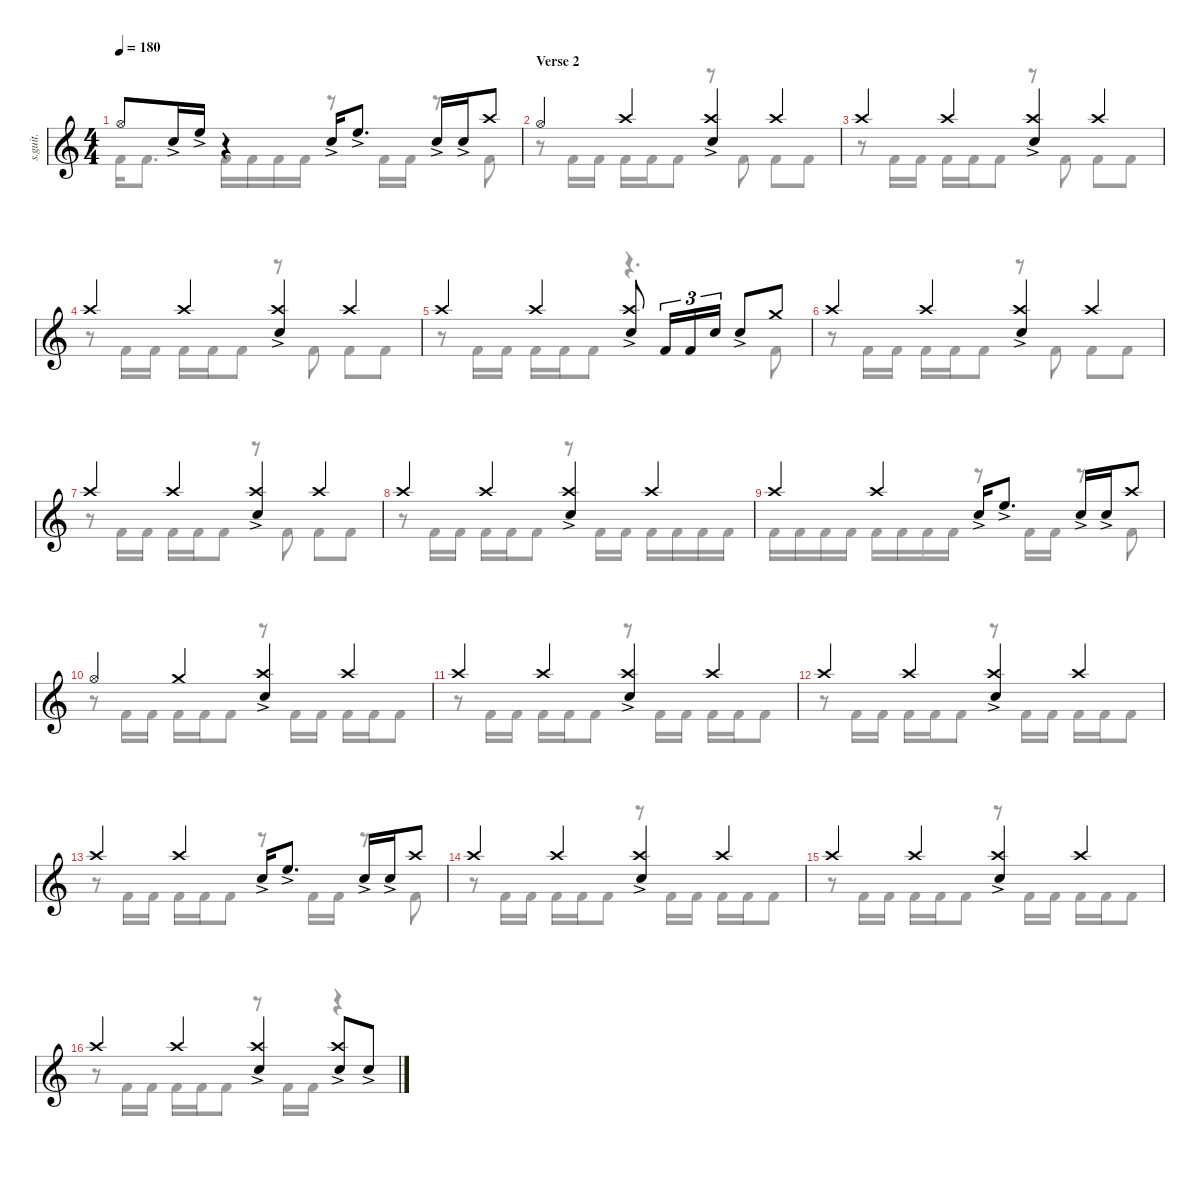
\defaultSystemsLayout 4
\hideDynamics
\bracketExtendMode nobrackets
\track ("Percussion" "s.guit.") {instrument percussion}
\staff {score}
\articulation defaults
\voice
\ts (4 4)
\tempo 180
\clef g2
\ks c "Hi-Hat (open)".8{lyrics (0 "") lyrics (1 "") lyrics (2 "") lyrics (3 "") lyrics (4 "") dy f} "Snare (hit) 2"{ac}.16{lyrics (0 "") lyrics (1 "") lyrics (2 "") lyrics (3 "") lyrics (4 "")} "High Floor Tom (hit)"{ac}.16{lyrics (0 "") lyrics (1 "") lyrics (2 "") lyrics (3 "") lyrics (4 "")}
r.4 "Snare (hit) 2"{ac}.16{lyrics (0 "") lyrics (1 "") lyrics (2 "") lyrics (3 "") lyrics (4 "")} "High Floor Tom (hit)"{ac}.8{d lyrics (0 "") lyrics (1 "") lyrics (2 "") lyrics (3 "") lyrics (4 "")} "Snare (hit) 2"{ac}.16{lyrics (0 "") lyrics (1 "") lyrics (2 "") lyrics (3 "") lyrics (4 "")} "Snare (hit) 2"{ac}.16{lyrics (0 "") lyrics (1 "") lyrics (2 "") lyrics (3 "") lyrics (4 "")} "Crash high (hit)".8{lyrics (0 "") lyrics (1 "") lyrics (2 "") lyrics (3 "") lyrics (4 "")} |
\section ("" "Verse 2")
"Hi-Hat (open)".4{lyrics (0 "") lyrics (1 "") lyrics (2 "") lyrics (3 "") lyrics (4 "")} "Crash high (hit)".4{lyrics (0 "") lyrics (1 "") lyrics (2 "") lyrics (3 "") lyrics (4 "")} ("Crash high (hit)" "Snare (hit) 2"{ac}).4{lyrics (0 "") lyrics (1 "") lyrics (2 "") lyrics (3 "") lyrics (4 "")} "Crash high (hit)".4{lyrics (0 "") lyrics (1 "") lyrics (2 "") lyrics (3 "") lyrics (4 "")} |
"Crash high (hit)".4{lyrics (0 "") lyrics (1 "") lyrics (2 "") lyrics (3 "") lyrics (4 "")} "Crash high (hit)".4{lyrics (0 "") lyrics (1 "") lyrics (2 "") lyrics (3 "") lyrics (4 "")} ("Crash high (hit)" "Snare (hit) 2"{ac}).4{lyrics (0 "") lyrics (1 "") lyrics (2 "") lyrics (3 "") lyrics (4 "")} "Crash high (hit)".4{lyrics (0 "") lyrics (1 "") lyrics (2 "") lyrics (3 "") lyrics (4 "")} |
"Crash high (hit)".4{lyrics (0 "") lyrics (1 "") lyrics (2 "") lyrics (3 "") lyrics (4 "")} "Crash high (hit)".4{lyrics (0 "") lyrics (1 "") lyrics (2 "") lyrics (3 "") lyrics (4 "")} ("Crash high (hit)" "Snare (hit) 2"{ac}).4{lyrics (0 "") lyrics (1 "") lyrics (2 "") lyrics (3 "") lyrics (4 "")} "Crash high (hit)".4{lyrics (0 "") lyrics (1 "") lyrics (2 "") lyrics (3 "") lyrics (4 "")} |
"Crash high (hit)".4{lyrics (0 "") lyrics (1 "") lyrics (2 "") lyrics (3 "") lyrics (4 "")} "Crash high (hit)".4{lyrics (0 "") lyrics (1 "") lyrics (2 "") lyrics (3 "") lyrics (4 "")} ("Snare (hit) 2"{ac} "Crash high (hit)").8{lyrics (0 "") lyrics (1 "") lyrics (2 "") lyrics (3 "") lyrics (4 "")} "Kick (hit) 2".16{tu (3 2) lyrics (0 "") lyrics (1 "") lyrics (2 "") lyrics (3 "") lyrics (4 "")} "Kick (hit) 2".16{tu (3 2) lyrics (0 "") lyrics (1 "") lyrics (2 "") lyrics (3 "") lyrics (4 "")} "Snare (hit) 2".16{tu (3 2) lyrics (0 "") lyrics (1 "") lyrics (2 "") lyrics (3 "") lyrics (4 "")} "Snare (hit) 2"{ac}.8{lyrics (0 "") lyrics (1 "") lyrics (2 "") lyrics (3 "") lyrics (4 "")} "Crash medium (hit)".8{lyrics (0 "") lyrics (1 "") lyrics (2 "") lyrics (3 "") lyrics (4 "")} |
"Crash high (hit)".4{lyrics (0 "") lyrics (1 "") lyrics (2 "") lyrics (3 "") lyrics (4 "")} "Crash high (hit)".4{lyrics (0 "") lyrics (1 "") lyrics (2 "") lyrics (3 "") lyrics (4 "")} ("Crash high (hit)" "Snare (hit) 2"{ac}).4{lyrics (0 "") lyrics (1 "") lyrics (2 "") lyrics (3 "") lyrics (4 "")} "Crash high (hit)".4{lyrics (0 "") lyrics (1 "") lyrics (2 "") lyrics (3 "") lyrics (4 "")} |
"Crash high (hit)".4{lyrics (0 "") lyrics (1 "") lyrics (2 "") lyrics (3 "") lyrics (4 "")} "Crash high (hit)".4{lyrics (0 "") lyrics (1 "") lyrics (2 "") lyrics (3 "") lyrics (4 "")} ("Crash high (hit)" "Snare (hit) 2"{ac}).4{lyrics (0 "") lyrics (1 "") lyrics (2 "") lyrics (3 "") lyrics (4 "")} "Crash high (hit)".4{lyrics (0 "") lyrics (1 "") lyrics (2 "") lyrics (3 "") lyrics (4 "")} |
"Crash high (hit)".4{lyrics (0 "") lyrics (1 "") lyrics (2 "") lyrics (3 "") lyrics (4 "")} "Crash high (hit)".4{lyrics (0 "") lyrics (1 "") lyrics (2 "") lyrics (3 "") lyrics (4 "")} ("Crash high (hit)" "Snare (hit) 2"{ac}).4{lyrics (0 "") lyrics (1 "") lyrics (2 "") lyrics (3 "") lyrics (4 "")} "Crash high (hit)".4{lyrics (0 "") lyrics (1 "") lyrics (2 "") lyrics (3 "") lyrics (4 "")} |
"Crash high (hit)".4{lyrics (0 "") lyrics (1 "") lyrics (2 "") lyrics (3 "") lyrics (4 "")} "Crash high (hit)".4{lyrics (0 "") lyrics (1 "") lyrics (2 "") lyrics (3 "") lyrics (4 "")} "Snare (hit) 2"{ac}.16{lyrics (0 "") lyrics (1 "") lyrics (2 "") lyrics (3 "") lyrics (4 "")} "High Floor Tom (hit)"{ac}.8{d lyrics (0 "") lyrics (1 "") lyrics (2 "") lyrics (3 "") lyrics (4 "")} "Snare (hit) 2"{ac}.16{lyrics (0 "") lyrics (1 "") lyrics (2 "") lyrics (3 "") lyrics (4 "")} "Snare (hit) 2"{ac}.16{lyrics (0 "") lyrics (1 "") lyrics (2 "") lyrics (3 "") lyrics (4 "")} "Crash high (hit)".8{lyrics (0 "") lyrics (1 "") lyrics (2 "") lyrics (3 "") lyrics (4 "")} |
"Hi-Hat (open)".4{lyrics (0 "") lyrics (1 "") lyrics (2 "") lyrics (3 "") lyrics (4 "")} "Crash medium (hit)".4{lyrics (0 "") lyrics (1 "") lyrics (2 "") lyrics (3 "") lyrics (4 "")} ("Crash high (hit)" "Snare (hit) 2"{ac}).4{lyrics (0 "") lyrics (1 "") lyrics (2 "") lyrics (3 "") lyrics (4 "")} "Crash high (hit)".4{lyrics (0 "") lyrics (1 "") lyrics (2 "") lyrics (3 "") lyrics (4 "")} |
"Crash high (hit)".4{lyrics (0 "") lyrics (1 "") lyrics (2 "") lyrics (3 "") lyrics (4 "")} "Crash high (hit)".4{lyrics (0 "") lyrics (1 "") lyrics (2 "") lyrics (3 "") lyrics (4 "")} ("Crash high (hit)" "Snare (hit) 2"{ac}).4{lyrics (0 "") lyrics (1 "") lyrics (2 "") lyrics (3 "") lyrics (4 "")} "Crash high (hit)".4{lyrics (0 "") lyrics (1 "") lyrics (2 "") lyrics (3 "") lyrics (4 "")} |
"Crash high (hit)".4{lyrics (0 "") lyrics (1 "") lyrics (2 "") lyrics (3 "") lyrics (4 "")} "Crash high (hit)".4{lyrics (0 "") lyrics (1 "") lyrics (2 "") lyrics (3 "") lyrics (4 "")} ("Crash high (hit)" "Snare (hit) 2"{ac}).4{lyrics (0 "") lyrics (1 "") lyrics (2 "") lyrics (3 "") lyrics (4 "")} "Crash high (hit)".4{lyrics (0 "") lyrics (1 "") lyrics (2 "") lyrics (3 "") lyrics (4 "")} |
"Crash high (hit)".4{lyrics (0 "") lyrics (1 "") lyrics (2 "") lyrics (3 "") lyrics (4 "")} "Crash high (hit)".4{lyrics (0 "") lyrics (1 "") lyrics (2 "") lyrics (3 "") lyrics (4 "")} "Snare (hit) 2"{ac}.16{lyrics (0 "") lyrics (1 "") lyrics (2 "") lyrics (3 "") lyrics (4 "")} "High Floor Tom (hit)"{ac}.8{d lyrics (0 "") lyrics (1 "") lyrics (2 "") lyrics (3 "") lyrics (4 "")} "Snare (hit) 2"{ac}.16{lyrics (0 "") lyrics (1 "") lyrics (2 "") lyrics (3 "") lyrics (4 "")} "Snare (hit) 2"{ac}.16{lyrics (0 "") lyrics (1 "") lyrics (2 "") lyrics (3 "") lyrics (4 "")} "Crash high (hit)".8{lyrics (0 "") lyrics (1 "") lyrics (2 "") lyrics (3 "") lyrics (4 "")} |
"Crash high (hit)".4{lyrics (0 "") lyrics (1 "") lyrics (2 "") lyrics (3 "") lyrics (4 "")} "Crash high (hit)".4{lyrics (0 "") lyrics (1 "") lyrics (2 "") lyrics (3 "") lyrics (4 "")} ("Crash high (hit)" "Snare (hit) 2"{ac}).4{lyrics (0 "") lyrics (1 "") lyrics (2 "") lyrics (3 "") lyrics (4 "")} "Crash high (hit)".4{lyrics (0 "") lyrics (1 "") lyrics (2 "") lyrics (3 "") lyrics (4 "")} |
"Crash high (hit)".4{lyrics (0 "") lyrics (1 "") lyrics (2 "") lyrics (3 "") lyrics (4 "")} "Crash high (hit)".4{lyrics (0 "") lyrics (1 "") lyrics (2 "") lyrics (3 "") lyrics (4 "")} ("Crash high (hit)" "Snare (hit) 2"{ac}).4{lyrics (0 "") lyrics (1 "") lyrics (2 "") lyrics (3 "") lyrics (4 "")} "Crash high (hit)".4{lyrics (0 "") lyrics (1 "") lyrics (2 "") lyrics (3 "") lyrics (4 "")} |
"Crash high (hit)".4{lyrics (0 "") lyrics (1 "") lyrics (2 "") lyrics (3 "") lyrics (4 "")} "Crash high (hit)".4{lyrics (0 "") lyrics (1 "") lyrics (2 "") lyrics (3 "") lyrics (4 "")} ("Crash high (hit)" "Snare (hit) 2"{ac}).4{lyrics (0 "") lyrics (1 "") lyrics (2 "") lyrics (3 "") lyrics (4 "")} ("Crash high (hit)" "Snare (hit) 2"{ac}).8{lyrics (0 "") lyrics (1 "") lyrics (2 "") lyrics (3 "") lyrics (4 "")} "Snare (hit) 2"{ac}.8{lyrics (0 "") lyrics (1 "") lyrics (2 "") lyrics (3 "") lyrics (4 "")}
\voice
\clef g2
\ottava regular
\simile none
\ks c "Kick (hit) 2".16{lyrics (0 "") lyrics (1 "") lyrics (2 "") lyrics (3 "") lyrics (4 "") dy f} "Kick (hit) 2".8{d lyrics (0 "") lyrics (1 "") lyrics (2 "") lyrics (3 "") lyrics (4 "")} "Kick (hit) 2".16{lyrics (0 "") lyrics (1 "") lyrics (2 "") lyrics (3 "") lyrics (4 "")} "Kick (hit) 2".16{lyrics (0 "") lyrics (1 "") lyrics (2 "") lyrics (3 "") lyrics (4 "")} "Kick (hit) 2".16{lyrics (0 "") lyrics (1 "") lyrics (2 "") lyrics (3 "") lyrics (4 "")} "Kick (hit) 2".16{lyrics (0 "") lyrics (1 "") lyrics (2 "") lyrics (3 "") lyrics (4 "")}
r.8 "Kick (hit) 2".16{lyrics (0 "") lyrics (1 "") lyrics (2 "") lyrics (3 "") lyrics (4 "")} "Kick (hit) 2".16{lyrics (0 "") lyrics (1 "") lyrics (2 "") lyrics (3 "") lyrics (4 "")} r.8 "Kick (hit) 2".8{lyrics (0 "") lyrics (1 "") lyrics (2 "") lyrics (3 "") lyrics (4 "")} |
r.8 "Kick (hit) 2".16{lyrics (0 "") lyrics (1 "") lyrics (2 "") lyrics (3 "") lyrics (4 "")} "Kick (hit) 2".16{lyrics (0 "") lyrics (1 "") lyrics (2 "") lyrics (3 "") lyrics (4 "")} "Kick (hit) 2".16{lyrics (0 "") lyrics (1 "") lyrics (2 "") lyrics (3 "") lyrics (4 "")} "Kick (hit) 2".16{lyrics (0 "") lyrics (1 "") lyrics (2 "") lyrics (3 "") lyrics (4 "")} "Kick (hit) 2".8{lyrics (0 "") lyrics (1 "") lyrics (2 "") lyrics (3 "") lyrics (4 "")} r.8 "Kick (hit) 2".8{lyrics (0 "") lyrics (1 "") lyrics (2 "") lyrics (3 "") lyrics (4 "")} "Kick (hit) 2".8{lyrics (0 "") lyrics (1 "") lyrics (2 "") lyrics (3 "") lyrics (4 "")} "Kick (hit) 2".8{lyrics (0 "") lyrics (1 "") lyrics (2 "") lyrics (3 "") lyrics (4 "")} |
r.8 "Kick (hit) 2".16{lyrics (0 "") lyrics (1 "") lyrics (2 "") lyrics (3 "") lyrics (4 "")} "Kick (hit) 2".16{lyrics (0 "") lyrics (1 "") lyrics (2 "") lyrics (3 "") lyrics (4 "")} "Kick (hit) 2".16{lyrics (0 "") lyrics (1 "") lyrics (2 "") lyrics (3 "") lyrics (4 "")} "Kick (hit) 2".16{lyrics (0 "") lyrics (1 "") lyrics (2 "") lyrics (3 "") lyrics (4 "")} "Kick (hit) 2".8{lyrics (0 "") lyrics (1 "") lyrics (2 "") lyrics (3 "") lyrics (4 "")} r.8 "Kick (hit) 2".8{lyrics (0 "") lyrics (1 "") lyrics (2 "") lyrics (3 "") lyrics (4 "")} "Kick (hit) 2".8{lyrics (0 "") lyrics (1 "") lyrics (2 "") lyrics (3 "") lyrics (4 "")} "Kick (hit) 2".8{lyrics (0 "") lyrics (1 "") lyrics (2 "") lyrics (3 "") lyrics (4 "")} |
r.8 "Kick (hit) 2".16{lyrics (0 "") lyrics (1 "") lyrics (2 "") lyrics (3 "") lyrics (4 "")} "Kick (hit) 2".16{lyrics (0 "") lyrics (1 "") lyrics (2 "") lyrics (3 "") lyrics (4 "")} "Kick (hit) 2".16{lyrics (0 "") lyrics (1 "") lyrics (2 "") lyrics (3 "") lyrics (4 "")} "Kick (hit) 2".16{lyrics (0 "") lyrics (1 "") lyrics (2 "") lyrics (3 "") lyrics (4 "")} "Kick (hit) 2".8{lyrics (0 "") lyrics (1 "") lyrics (2 "") lyrics (3 "") lyrics (4 "")} r.8 "Kick (hit) 2".8{lyrics (0 "") lyrics (1 "") lyrics (2 "") lyrics (3 "") lyrics (4 "")} "Kick (hit) 2".8{lyrics (0 "") lyrics (1 "") lyrics (2 "") lyrics (3 "") lyrics (4 "")} "Kick (hit) 2".8{lyrics (0 "") lyrics (1 "") lyrics (2 "") lyrics (3 "") lyrics (4 "")} |
r.8 "Kick (hit) 2".16{lyrics (0 "") lyrics (1 "") lyrics (2 "") lyrics (3 "") lyrics (4 "")} "Kick (hit) 2".16{lyrics (0 "") lyrics (1 "") lyrics (2 "") lyrics (3 "") lyrics (4 "")} "Kick (hit) 2".16{lyrics (0 "") lyrics (1 "") lyrics (2 "") lyrics (3 "") lyrics (4 "")} "Kick (hit) 2".16{lyrics (0 "") lyrics (1 "") lyrics (2 "") lyrics (3 "") lyrics (4 "")} "Kick (hit) 2".8{lyrics (0 "") lyrics (1 "") lyrics (2 "") lyrics (3 "") lyrics (4 "")} r.4{d} "Kick (hit) 2".8{lyrics (0 "") lyrics (1 "") lyrics (2 "") lyrics (3 "") lyrics (4 "")} |
r.8 "Kick (hit) 2".16{lyrics (0 "") lyrics (1 "") lyrics (2 "") lyrics (3 "") lyrics (4 "")} "Kick (hit) 2".16{lyrics (0 "") lyrics (1 "") lyrics (2 "") lyrics (3 "") lyrics (4 "")} "Kick (hit) 2".16{lyrics (0 "") lyrics (1 "") lyrics (2 "") lyrics (3 "") lyrics (4 "")} "Kick (hit) 2".16{lyrics (0 "") lyrics (1 "") lyrics (2 "") lyrics (3 "") lyrics (4 "")} "Kick (hit) 2".8{lyrics (0 "") lyrics (1 "") lyrics (2 "") lyrics (3 "") lyrics (4 "")} r.8 "Kick (hit) 2".8{lyrics (0 "") lyrics (1 "") lyrics (2 "") lyrics (3 "") lyrics (4 "")} "Kick (hit) 2".8{lyrics (0 "") lyrics (1 "") lyrics (2 "") lyrics (3 "") lyrics (4 "")} "Kick (hit) 2".8{lyrics (0 "") lyrics (1 "") lyrics (2 "") lyrics (3 "") lyrics (4 "")} |
r.8 "Kick (hit) 2".16{lyrics (0 "") lyrics (1 "") lyrics (2 "") lyrics (3 "") lyrics (4 "")} "Kick (hit) 2".16{lyrics (0 "") lyrics (1 "") lyrics (2 "") lyrics (3 "") lyrics (4 "")} "Kick (hit) 2".16{lyrics (0 "") lyrics (1 "") lyrics (2 "") lyrics (3 "") lyrics (4 "")} "Kick (hit) 2".16{lyrics (0 "") lyrics (1 "") lyrics (2 "") lyrics (3 "") lyrics (4 "")} "Kick (hit) 2".8{lyrics (0 "") lyrics (1 "") lyrics (2 "") lyrics (3 "") lyrics (4 "")} r.8 "Kick (hit) 2".8{lyrics (0 "") lyrics (1 "") lyrics (2 "") lyrics (3 "") lyrics (4 "")} "Kick (hit) 2".8{lyrics (0 "") lyrics (1 "") lyrics (2 "") lyrics (3 "") lyrics (4 "")} "Kick (hit) 2".8{lyrics (0 "") lyrics (1 "") lyrics (2 "") lyrics (3 "") lyrics (4 "")} |
r.8 "Kick (hit) 2".16{lyrics (0 "") lyrics (1 "") lyrics (2 "") lyrics (3 "") lyrics (4 "")} "Kick (hit) 2".16{lyrics (0 "") lyrics (1 "") lyrics (2 "") lyrics (3 "") lyrics (4 "")} "Kick (hit) 2".16{lyrics (0 "") lyrics (1 "") lyrics (2 "") lyrics (3 "") lyrics (4 "")} "Kick (hit) 2".16{lyrics (0 "") lyrics (1 "") lyrics (2 "") lyrics (3 "") lyrics (4 "")} "Kick (hit) 2".8{lyrics (0 "") lyrics (1 "") lyrics (2 "") lyrics (3 "") lyrics (4 "")} r.8 "Kick (hit) 2".16{lyrics (0 "") lyrics (1 "") lyrics (2 "") lyrics (3 "") lyrics (4 "")} "Kick (hit) 2".16{lyrics (0 "") lyrics (1 "") lyrics (2 "") lyrics (3 "") lyrics (4 "")} "Kick (hit) 2".16{lyrics (0 "") lyrics (1 "") lyrics (2 "") lyrics (3 "") lyrics (4 "")} "Kick (hit) 2".16{lyrics (0 "") lyrics (1 "") lyrics (2 "") lyrics (3 "") lyrics (4 "")} "Kick (hit) 2".16{lyrics (0 "") lyrics (1 "") lyrics (2 "") lyrics (3 "") lyrics (4 "")} "Kick (hit) 2".16{lyrics (0 "") lyrics (1 "") lyrics (2 "") lyrics (3 "") lyrics (4 "")} |
"Kick (hit) 2".16{lyrics (0 "") lyrics (1 "") lyrics (2 "") lyrics (3 "") lyrics (4 "")} "Kick (hit) 2".16{lyrics (0 "") lyrics (1 "") lyrics (2 "") lyrics (3 "") lyrics (4 "")} "Kick (hit) 2".16{lyrics (0 "") lyrics (1 "") lyrics (2 "") lyrics (3 "") lyrics (4 "")} "Kick (hit) 2".16{lyrics (0 "") lyrics (1 "") lyrics (2 "") lyrics (3 "") lyrics (4 "")} "Kick (hit) 2".16{lyrics (0 "") lyrics (1 "") lyrics (2 "") lyrics (3 "") lyrics (4 "")} "Kick (hit) 2".16{lyrics (0 "") lyrics (1 "") lyrics (2 "") lyrics (3 "") lyrics (4 "")} "Kick (hit) 2".16{lyrics (0 "") lyrics (1 "") lyrics (2 "") lyrics (3 "") lyrics (4 "")} "Kick (hit) 2".16{lyrics (0 "") lyrics (1 "") lyrics (2 "") lyrics (3 "") lyrics (4 "")} r.8 "Kick (hit) 2".16{lyrics (0 "") lyrics (1 "") lyrics (2 "") lyrics (3 "") lyrics (4 "")} "Kick (hit) 2".16{lyrics (0 "") lyrics (1 "") lyrics (2 "") lyrics (3 "") lyrics (4 "")} r.8 "Kick (hit) 2".8{lyrics (0 "") lyrics (1 "") lyrics (2 "") lyrics (3 "") lyrics (4 "")} |
r.8 "Kick (hit) 2".16{lyrics (0 "") lyrics (1 "") lyrics (2 "") lyrics (3 "") lyrics (4 "")} "Kick (hit) 2".16{lyrics (0 "") lyrics (1 "") lyrics (2 "") lyrics (3 "") lyrics (4 "")} "Kick (hit) 2".16{lyrics (0 "") lyrics (1 "") lyrics (2 "") lyrics (3 "") lyrics (4 "")} "Kick (hit) 2".16{lyrics (0 "") lyrics (1 "") lyrics (2 "") lyrics (3 "") lyrics (4 "")} "Kick (hit) 2".8{lyrics (0 "") lyrics (1 "") lyrics (2 "") lyrics (3 "") lyrics (4 "")} r.8 "Kick (hit) 2".16{lyrics (0 "") lyrics (1 "") lyrics (2 "") lyrics (3 "") lyrics (4 "")} "Kick (hit) 2".16{lyrics (0 "") lyrics (1 "") lyrics (2 "") lyrics (3 "") lyrics (4 "")} "Kick (hit) 2".16{lyrics (0 "") lyrics (1 "") lyrics (2 "") lyrics (3 "") lyrics (4 "")} "Kick (hit) 2".16{lyrics (0 "") lyrics (1 "") lyrics (2 "") lyrics (3 "") lyrics (4 "")} "Kick (hit) 2".8{lyrics (0 "") lyrics (1 "") lyrics (2 "") lyrics (3 "") lyrics (4 "")} |
r.8 "Kick (hit) 2".16{lyrics (0 "") lyrics (1 "") lyrics (2 "") lyrics (3 "") lyrics (4 "")} "Kick (hit) 2".16{lyrics (0 "") lyrics (1 "") lyrics (2 "") lyrics (3 "") lyrics (4 "")} "Kick (hit) 2".16{lyrics (0 "") lyrics (1 "") lyrics (2 "") lyrics (3 "") lyrics (4 "")} "Kick (hit) 2".16{lyrics (0 "") lyrics (1 "") lyrics (2 "") lyrics (3 "") lyrics (4 "")} "Kick (hit) 2".8{lyrics (0 "") lyrics (1 "") lyrics (2 "") lyrics (3 "") lyrics (4 "")} r.8 "Kick (hit) 2".16{lyrics (0 "") lyrics (1 "") lyrics (2 "") lyrics (3 "") lyrics (4 "")} "Kick (hit) 2".16{lyrics (0 "") lyrics (1 "") lyrics (2 "") lyrics (3 "") lyrics (4 "")} "Kick (hit) 2".16{lyrics (0 "") lyrics (1 "") lyrics (2 "") lyrics (3 "") lyrics (4 "")} "Kick (hit) 2".16{lyrics (0 "") lyrics (1 "") lyrics (2 "") lyrics (3 "") lyrics (4 "")} "Kick (hit) 2".8{lyrics (0 "") lyrics (1 "") lyrics (2 "") lyrics (3 "") lyrics (4 "")} |
r.8 "Kick (hit) 2".16{lyrics (0 "") lyrics (1 "") lyrics (2 "") lyrics (3 "") lyrics (4 "")} "Kick (hit) 2".16{lyrics (0 "") lyrics (1 "") lyrics (2 "") lyrics (3 "") lyrics (4 "")} "Kick (hit) 2".16{lyrics (0 "") lyrics (1 "") lyrics (2 "") lyrics (3 "") lyrics (4 "")} "Kick (hit) 2".16{lyrics (0 "") lyrics (1 "") lyrics (2 "") lyrics (3 "") lyrics (4 "")} "Kick (hit) 2".8{lyrics (0 "") lyrics (1 "") lyrics (2 "") lyrics (3 "") lyrics (4 "")} r.8 "Kick (hit) 2".16{lyrics (0 "") lyrics (1 "") lyrics (2 "") lyrics (3 "") lyrics (4 "")} "Kick (hit) 2".16{lyrics (0 "") lyrics (1 "") lyrics (2 "") lyrics (3 "") lyrics (4 "")} "Kick (hit) 2".16{lyrics (0 "") lyrics (1 "") lyrics (2 "") lyrics (3 "") lyrics (4 "")} "Kick (hit) 2".16{lyrics (0 "") lyrics (1 "") lyrics (2 "") lyrics (3 "") lyrics (4 "")} "Kick (hit) 2".8{lyrics (0 "") lyrics (1 "") lyrics (2 "") lyrics (3 "") lyrics (4 "")} |
r.8 "Kick (hit) 2".16{lyrics (0 "") lyrics (1 "") lyrics (2 "") lyrics (3 "") lyrics (4 "")} "Kick (hit) 2".16{lyrics (0 "") lyrics (1 "") lyrics (2 "") lyrics (3 "") lyrics (4 "")} "Kick (hit) 2".16{lyrics (0 "") lyrics (1 "") lyrics (2 "") lyrics (3 "") lyrics (4 "")} "Kick (hit) 2".16{lyrics (0 "") lyrics (1 "") lyrics (2 "") lyrics (3 "") lyrics (4 "")} "Kick (hit) 2".8{lyrics (0 "") lyrics (1 "") lyrics (2 "") lyrics (3 "") lyrics (4 "")} r.8 "Kick (hit) 2".16{lyrics (0 "") lyrics (1 "") lyrics (2 "") lyrics (3 "") lyrics (4 "")} "Kick (hit) 2".16{lyrics (0 "") lyrics (1 "") lyrics (2 "") lyrics (3 "") lyrics (4 "")} r.8 "Kick (hit) 2".8{lyrics (0 "") lyrics (1 "") lyrics (2 "") lyrics (3 "") lyrics (4 "")} |
r.8 "Kick (hit) 2".16{lyrics (0 "") lyrics (1 "") lyrics (2 "") lyrics (3 "") lyrics (4 "")} "Kick (hit) 2".16{lyrics (0 "") lyrics (1 "") lyrics (2 "") lyrics (3 "") lyrics (4 "")} "Kick (hit) 2".16{lyrics (0 "") lyrics (1 "") lyrics (2 "") lyrics (3 "") lyrics (4 "")} "Kick (hit) 2".16{lyrics (0 "") lyrics (1 "") lyrics (2 "") lyrics (3 "") lyrics (4 "")} "Kick (hit) 2".8{lyrics (0 "") lyrics (1 "") lyrics (2 "") lyrics (3 "") lyrics (4 "")} r.8 "Kick (hit) 2".16{lyrics (0 "") lyrics (1 "") lyrics (2 "") lyrics (3 "") lyrics (4 "")} "Kick (hit) 2".16{lyrics (0 "") lyrics (1 "") lyrics (2 "") lyrics (3 "") lyrics (4 "")} "Kick (hit) 2".16{lyrics (0 "") lyrics (1 "") lyrics (2 "") lyrics (3 "") lyrics (4 "")} "Kick (hit) 2".16{lyrics (0 "") lyrics (1 "") lyrics (2 "") lyrics (3 "") lyrics (4 "")} "Kick (hit) 2".8{lyrics (0 "") lyrics (1 "") lyrics (2 "") lyrics (3 "") lyrics (4 "")} |
r.8 "Kick (hit) 2".16{lyrics (0 "") lyrics (1 "") lyrics (2 "") lyrics (3 "") lyrics (4 "")} "Kick (hit) 2".16{lyrics (0 "") lyrics (1 "") lyrics (2 "") lyrics (3 "") lyrics (4 "")} "Kick (hit) 2".16{lyrics (0 "") lyrics (1 "") lyrics (2 "") lyrics (3 "") lyrics (4 "")} "Kick (hit) 2".16{lyrics (0 "") lyrics (1 "") lyrics (2 "") lyrics (3 "") lyrics (4 "")} "Kick (hit) 2".8{lyrics (0 "") lyrics (1 "") lyrics (2 "") lyrics (3 "") lyrics (4 "")} r.8 "Kick (hit) 2".16{lyrics (0 "") lyrics (1 "") lyrics (2 "") lyrics (3 "") lyrics (4 "")} "Kick (hit) 2".16{lyrics (0 "") lyrics (1 "") lyrics (2 "") lyrics (3 "") lyrics (4 "")} "Kick (hit) 2".16{lyrics (0 "") lyrics (1 "") lyrics (2 "") lyrics (3 "") lyrics (4 "")} "Kick (hit) 2".16{lyrics (0 "") lyrics (1 "") lyrics (2 "") lyrics (3 "") lyrics (4 "")} "Kick (hit) 2".8{lyrics (0 "") lyrics (1 "") lyrics (2 "") lyrics (3 "") lyrics (4 "")} |
r.8 "Kick (hit) 2".16{lyrics (0 "") lyrics (1 "") lyrics (2 "") lyrics (3 "") lyrics (4 "")} "Kick (hit) 2".16{lyrics (0 "") lyrics (1 "") lyrics (2 "") lyrics (3 "") lyrics (4 "")} "Kick (hit) 2".16{lyrics (0 "") lyrics (1 "") lyrics (2 "") lyrics (3 "") lyrics (4 "")} "Kick (hit) 2".16{lyrics (0 "") lyrics (1 "") lyrics (2 "") lyrics (3 "") lyrics (4 "")} "Kick (hit) 2".8{lyrics (0 "") lyrics (1 "") lyrics (2 "") lyrics (3 "") lyrics (4 "")} r.8 "Kick (hit) 2".16{lyrics (0 "") lyrics (1 "") lyrics (2 "") lyrics (3 "") lyrics (4 "")} "Kick (hit) 2".16{lyrics (0 "") lyrics (1 "") lyrics (2 "") lyrics (3 "") lyrics (4 "")} r.4
